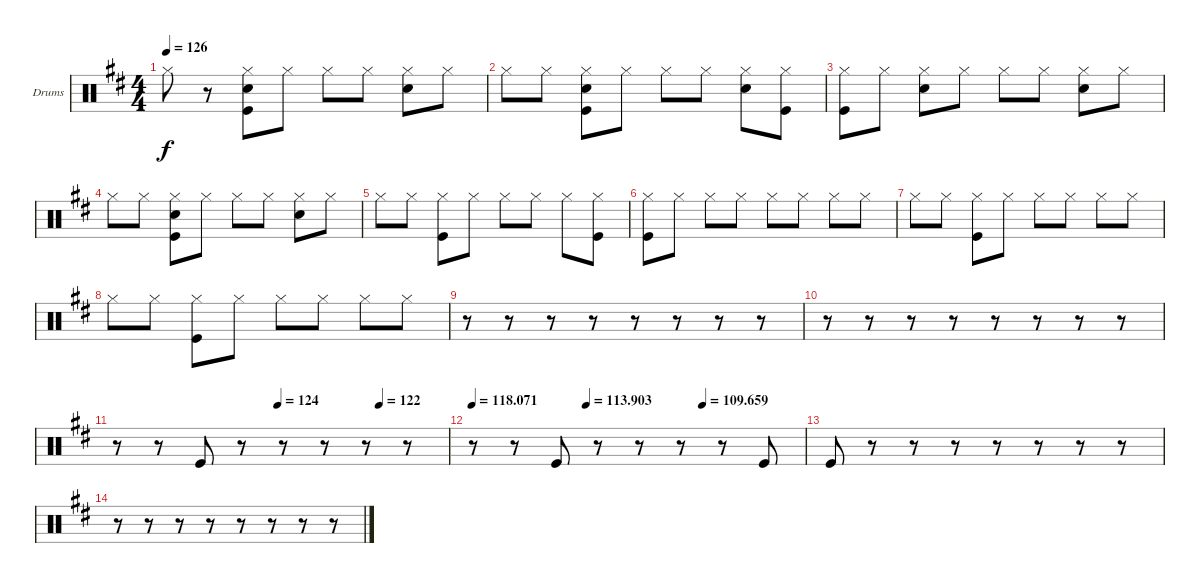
\bracketExtendMode groupsimilarinstruments
\firstSystemTrackNameOrientation horizontal
\otherSystemsTrackNameOrientation horizontal
\track ("Drumkit" "Drums") {instrument percussion}
\staff {score}
\articulation defaults
\ts (4 4)
\tempo 126
\clef neutral
\ks d "Hi-Hat (closed)".8{dy f}
r.8 ("Kick (hit)" "Hi-Hat (closed)" "Snare (hit) 2").8 "Hi-Hat (closed)".8 "Hi-Hat (closed)".8 "Hi-Hat (closed)".8 ("Hi-Hat (closed)" "Snare (hit) 2").8 "Hi-Hat (closed)".8 |
"Hi-Hat (closed)".8 "Hi-Hat (closed)".8 ("Kick (hit)" "Hi-Hat (closed)" "Snare (hit) 2").8 "Hi-Hat (closed)".8 "Hi-Hat (closed)".8 "Hi-Hat (closed)".8 ("Hi-Hat (closed)" "Snare (hit) 2").8 ("Kick (hit)" "Hi-Hat (closed)").8 |
("Kick (hit)" "Hi-Hat (closed)").8 "Hi-Hat (closed)".8 ("Hi-Hat (closed)" "Snare (hit) 2").8 "Hi-Hat (closed)".8 "Hi-Hat (closed)".8 "Hi-Hat (closed)".8 ("Hi-Hat (closed)" "Snare (hit) 2").8 "Hi-Hat (closed)".8 |
"Hi-Hat (closed)".8 "Hi-Hat (closed)".8 ("Kick (hit)" "Hi-Hat (closed)" "Snare (hit) 2").8 "Hi-Hat (closed)".8 "Hi-Hat (closed)".8 "Hi-Hat (closed)".8 ("Hi-Hat (closed)" "Snare (hit) 2").8 "Hi-Hat (closed)".8 |
"Hi-Hat (closed)".8 "Hi-Hat (closed)".8 ("Kick (hit)" "Hi-Hat (closed)").8 "Hi-Hat (closed)".8 "Hi-Hat (closed)".8 "Hi-Hat (closed)".8 "Hi-Hat (closed)".8 ("Kick (hit)" "Hi-Hat (closed)").8 |
("Kick (hit)" "Hi-Hat (closed)").8 "Hi-Hat (closed)".8 "Hi-Hat (closed)".8 "Hi-Hat (closed)".8 "Hi-Hat (closed)".8 "Hi-Hat (closed)".8 "Hi-Hat (closed)".8 "Hi-Hat (closed)".8 |
\scale
0.633657 "Hi-Hat (closed)".8 "Hi-Hat (closed)".8 ("Kick (hit)" "Hi-Hat (closed)").8 "Hi-Hat (closed)".8 "Hi-Hat (closed)".8 "Hi-Hat (closed)".8 "Hi-Hat (closed)".8 "Hi-Hat (closed)".8 |
\scale
0.366376 "Hi-Hat (closed)".8 "Hi-Hat (closed)".8 ("Kick (hit)" "Hi-Hat (closed)").8 "Hi-Hat (closed)".8 "Hi-Hat (closed)".8 "Hi-Hat (closed)".8 "Hi-Hat (closed)".8 "Hi-Hat (closed)".8 |
r.8 r.8 r.8 r.8 r.8 r.8 r.8 r.8 |
r.8 r.8 r.8 r.8 r.8 r.8 r.8 r.8 |
\tempo (124 0.4875)
\tempo (122 0.79375)
r.8 r.8 "Kick (hit)".8 r.8 r.8 r.8 r.8 r.8 |
\tempo
118.071
\tempo (113.903 0.34375)
\tempo (109.659 0.69375)
r.8 r.8 "Kick (hit)".8 r.8 r.8 r.8 r.8 "Kick (hit)".8 |
"Kick (hit)".8 r.8 r.8 r.8 r.8 r.8 r.8 r.8 |
r.8 r.8 r.8 r.8 r.8 r.8 r.8 r.8
